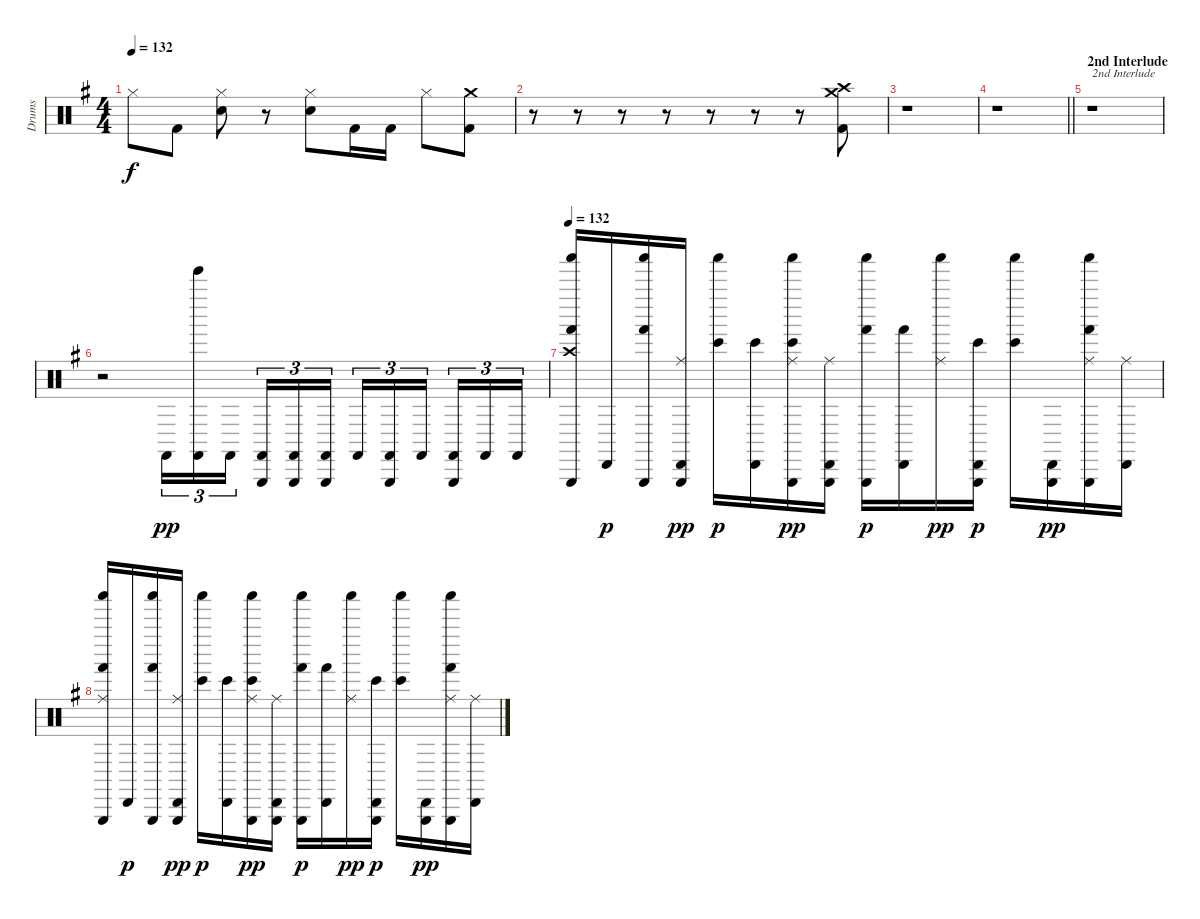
\track ("Drums" "Drums") {instrument percussion}
\staff {score}
\articulation defaults
\ts (4 4)
\tempo 132
\clef neutral
\ks g "Hi-Hat (closed)".8{dy f} "Kick (hit) 2".8
("Hi-Hat (closed)" "Snare (hit) 2").8 r.8 ("Hi-Hat (closed)" "Snare (hit) 2").8 "Kick (hit) 2".16 "Kick (hit) 2".16 "Hi-Hat (closed)".8 ("Crash medium (hit)" "Kick (hit) 2").8 |
r.8 r.8 r.8 r.8 r.8 r.8 r.8 ("Crash medium (hit)" "Kick (hit) 2" "Crash high (hit)").8 |
r.1 |
\barLineRight lightlight
r.1 |
\section ("" "2nd Interlude")
r.1{txt "2nd Interlude"} |
r.2 "Castanets (hit)".16{tu (3 2) dy pp} ("Castanets (hit)" "Tinkle Bell (hit)").16{tu (3 2)} "Castanets (hit)".16{tu (3 2) beam splitsecondary} ("Castanets (hit)" "Triangle (hit)").16{tu (3 2)} ("Castanets (hit)" "Triangle (hit)").16{tu (3 2)} ("Castanets (hit)" "Triangle (hit)").16{tu (3 2)} "Castanets (hit)".16{tu (3 2)} ("Castanets (hit)" "Triangle (hit)").16{tu (3 2)} "Castanets (hit)".16{tu (3 2) beam splitsecondary} ("Castanets (hit)" "Triangle (hit)").16{tu (3 2)} "Castanets (hit)".16{tu (3 2)} "Castanets (hit)".16{tu (3 2)} |
\tempo 132
("Shaker (hit)" "Triangle (hit)" "Hand (hit)" "Crash high (hit)").16 "Cabasa (hit)".16{dy p} ("Shaker (hit)" "Triangle (hit)" "Hand (hit)").16 ("Cabasa (hit)" "Triangle (hit)" "Ride (middle)").16{dy pp} ("Shaker (hit)" "Bongo High (hit)").16{dy p} ("Cabasa (hit)" "Bongo High (hit)").16 ("Shaker (hit)" "Triangle (hit)" "Bongo High (hit)" "Ride (middle)").16{dy pp} ("Cabasa (hit)" "Triangle (hit)" "Ride (middle)").16 ("Shaker (hit)" "Triangle (hit)" "Hand (hit)").16{dy p} ("Cabasa (hit)" "Hand (hit)").16 ("Shaker (hit)" "Ride (middle)").16{dy pp} ("Cabasa (hit)" "Triangle (hit)" "Bongo High (hit)").16{dy p} ("Shaker (hit)" "Bongo High (hit)").16 ("Cabasa (hit)" "Triangle (hit)").16{dy pp} ("Shaker (hit)" "Triangle (hit)" "Hand (hit)" "Ride (middle)").16 ("Cabasa (hit)" "Ride (middle)").16 |
("Shaker (hit)" "Triangle (hit)" "Hand (hit)" "Ride (middle)").16 "Cabasa (hit)".16{dy p} ("Shaker (hit)" "Triangle (hit)" "Hand (hit)").16 ("Cabasa (hit)" "Triangle (hit)" "Ride (middle)").16{dy pp} ("Shaker (hit)" "Bongo High (hit)").16{dy p} ("Cabasa (hit)" "Bongo High (hit)").16 ("Shaker (hit)" "Triangle (hit)" "Bongo High (hit)" "Ride (middle)").16{dy pp} ("Cabasa (hit)" "Triangle (hit)" "Ride (middle)").16 ("Shaker (hit)" "Triangle (hit)" "Hand (hit)").16{dy p} ("Cabasa (hit)" "Hand (hit)").16 ("Shaker (hit)" "Ride (middle)").16{dy pp} ("Cabasa (hit)" "Triangle (hit)" "Bongo High (hit)").16{dy p} ("Shaker (hit)" "Bongo High (hit)").16 ("Cabasa (hit)" "Triangle (hit)").16{dy pp} ("Shaker (hit)" "Triangle (hit)" "Hand (hit)" "Ride (middle)").16 ("Cabasa (hit)" "Ride (middle)").16
